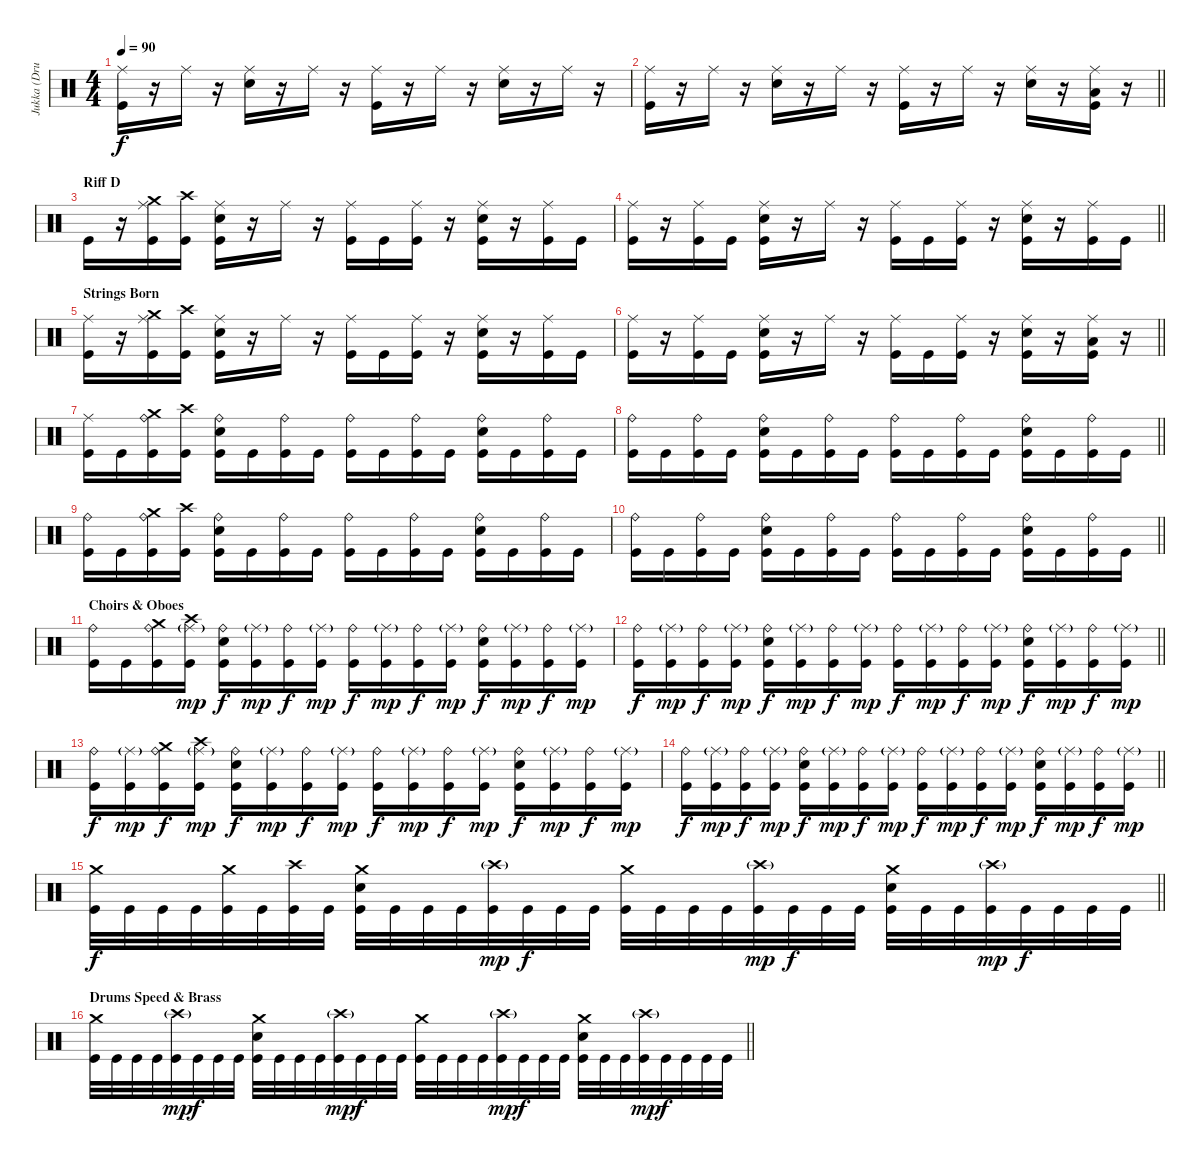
\track ("Jukka (Drums)" "Jukka (Dru") {instrument percussion}
\staff {score}
\articulation defaults
\ts (4 4)
\tempo 90
\clef neutral
\ks c
("Ride (middle)" "Kick (hit)").16{dy f} r.16 "Ride (middle)".16 r.16 ("Ride (middle)" "Snare (hit) 2").16 r.16 "Ride (middle)".16 r.16 ("Ride (middle)" "Kick (hit)").16 r.16 "Ride (middle)".16 r.16 ("Ride (middle)" "Snare (hit) 2").16 r.16 "Ride (middle)".16 r.16 |
\barLineRight lightlight
("Ride (middle)" "Kick (hit)").16 r.16 "Ride (middle)".16 r.16 ("Ride (middle)" "Snare (hit) 2").16 r.16 "Ride (middle)".16 r.16 ("Ride (middle)" "Kick (hit)").16 r.16 "Ride (middle)".16 r.16 ("Ride (middle)" "Snare (hit) 2").16 r.16 ("Ride (middle)" "Low Floor Tom (hit)" "Kick (hit)").16 r.16 |
\section ("" "Riff D")
"Kick (hit)".16 r.16 ("Ride (middle)" "Crash medium (hit)" "Kick (hit)").16 ("Crash high (hit)" "Kick (hit)").16 ("Ride (middle)" "Snare (hit) 2" "Kick (hit)").16 r.16 "Ride (middle)".16 r.16 ("Ride (middle)" "Kick (hit)").16 "Kick (hit)".16 ("Ride (middle)" "Kick (hit)").16 r.16 ("Ride (middle)" "Snare (hit) 2" "Kick (hit)").16 r.16 ("Ride (middle)" "Kick (hit)").16 "Kick (hit)".16 |
\barLineRight lightlight
("Ride (middle)" "Kick (hit)").16 r.16 ("Ride (middle)" "Kick (hit)").16 "Kick (hit)".16 ("Ride (middle)" "Snare (hit) 2" "Kick (hit)").16 r.16 "Ride (middle)".16 r.16 ("Ride (middle)" "Kick (hit)").16 "Kick (hit)".16 ("Ride (middle)" "Kick (hit)").16 r.16 ("Ride (middle)" "Snare (hit) 2" "Kick (hit)").16 r.16 ("Ride (middle)" "Kick (hit)").16 "Kick (hit)".16 |
\section ("" "Strings Born")
("Ride (middle)" "Kick (hit)").16 r.16 ("Ride (middle)" "Crash medium (hit)" "Kick (hit)").16 ("Crash high (hit)" "Kick (hit)").16 ("Ride (middle)" "Snare (hit) 2" "Kick (hit)").16 r.16 "Ride (middle)".16 r.16 ("Ride (middle)" "Kick (hit)").16 "Kick (hit)".16 ("Ride (middle)" "Kick (hit)").16 r.16 ("Ride (middle)" "Snare (hit) 2" "Kick (hit)").16 r.16 ("Ride (middle)" "Kick (hit)").16 "Kick (hit)".16 |
\barLineRight lightlight
("Ride (middle)" "Kick (hit)").16 r.16 ("Ride (middle)" "Kick (hit)").16 "Kick (hit)".16 ("Ride (middle)" "Snare (hit) 2" "Kick (hit)").16 r.16 "Ride (middle)".16 r.16 ("Ride (middle)" "Kick (hit)").16 "Kick (hit)".16 ("Ride (middle)" "Kick (hit)").16 r.16 ("Ride (middle)" "Snare (hit) 2" "Kick (hit)").16 r.16 ("Ride (middle)" "Low Floor Tom (hit)" "Kick (hit)").16 r.16 |
("Ride (middle)" "Kick (hit)").16 "Kick (hit)".16 ("Ride (bell)" "Crash medium (hit)" "Kick (hit)").16 ("Crash high (hit)" "Kick (hit)").16 ("Ride (bell)" "Snare (hit) 2" "Kick (hit)").16 "Kick (hit)".16 ("Ride (bell)" "Kick (hit)").16 "Kick (hit)".16 ("Ride (bell)" "Kick (hit)").16 "Kick (hit)".16 ("Ride (bell)" "Kick (hit)").16 "Kick (hit)".16 ("Ride (bell)" "Snare (hit) 2" "Kick (hit)").16 "Kick (hit)".16 ("Ride (bell)" "Kick (hit)").16 "Kick (hit)".16 |
\barLineRight lightlight
("Ride (bell)" "Kick (hit)").16 "Kick (hit)".16 ("Ride (bell)" "Kick (hit)").16 "Kick (hit)".16 ("Ride (bell)" "Snare (hit) 2" "Kick (hit)").16 "Kick (hit)".16 ("Ride (bell)" "Kick (hit)").16 "Kick (hit)".16 ("Ride (bell)" "Kick (hit)").16 "Kick (hit)".16 ("Ride (bell)" "Kick (hit)").16 "Kick (hit)".16 ("Ride (bell)" "Snare (hit) 2" "Kick (hit)").16 "Kick (hit)".16 ("Ride (bell)" "Kick (hit)").16 "Kick (hit)".16 |
("Ride (bell)" "Kick (hit)").16 "Kick (hit)".16 ("Ride (bell)" "Crash medium (hit)" "Kick (hit)").16 ("Crash high (hit)" "Kick (hit)").16 ("Ride (bell)" "Snare (hit) 2" "Kick (hit)").16 "Kick (hit)".16 ("Ride (bell)" "Kick (hit)").16 "Kick (hit)".16 ("Ride (bell)" "Kick (hit)").16 "Kick (hit)".16 ("Ride (bell)" "Kick (hit)").16 "Kick (hit)".16 ("Ride (bell)" "Snare (hit) 2" "Kick (hit)").16 "Kick (hit)".16 ("Ride (bell)" "Kick (hit)").16 "Kick (hit)".16 |
\barLineRight lightlight
("Ride (bell)" "Kick (hit)").16 "Kick (hit)".16 ("Ride (bell)" "Kick (hit)").16 "Kick (hit)".16 ("Ride (bell)" "Snare (hit) 2" "Kick (hit)").16 "Kick (hit)".16 ("Ride (bell)" "Kick (hit)").16 "Kick (hit)".16 ("Ride (bell)" "Kick (hit)").16 "Kick (hit)".16 ("Ride (bell)" "Kick (hit)").16 "Kick (hit)".16 ("Ride (bell)" "Snare (hit) 2" "Kick (hit)").16 "Kick (hit)".16 ("Ride (bell)" "Kick (hit)").16 "Kick (hit)".16 |
\section ("" "Choirs & Oboes")
("Ride (bell)" "Kick (hit)").16 "Kick (hit)".16 ("Ride (bell)" "Crash medium (hit)" "Kick (hit)").16 ("Ride (middle)"{g} "Crash high (hit)" "Kick (hit)").16{dy mp} ("Ride (bell)" "Snare (hit) 2" "Kick (hit)").16{dy f} ("Ride (middle)"{g} "Kick (hit)").16{dy mp} ("Ride (bell)" "Kick (hit)").16{dy f} ("Ride (middle)"{g} "Kick (hit)").16{dy mp} ("Ride (bell)" "Kick (hit)").16{dy f} ("Ride (middle)"{g} "Kick (hit)").16{dy mp} ("Ride (bell)" "Kick (hit)").16{dy f} ("Ride (middle)"{g} "Kick (hit)").16{dy mp} ("Ride (bell)" "Snare (hit) 2" "Kick (hit)").16{dy f} ("Ride (middle)"{g} "Kick (hit)").16{dy mp} ("Ride (bell)" "Kick (hit)").16{dy f} ("Ride (middle)"{g} "Kick (hit)").16{dy mp} |
\barLineRight lightlight
("Ride (bell)" "Kick (hit)").16{dy f} ("Ride (middle)"{g} "Kick (hit)").16{dy mp} ("Ride (bell)" "Kick (hit)").16{dy f} ("Ride (middle)"{g} "Kick (hit)").16{dy mp} ("Ride (bell)" "Snare (hit) 2" "Kick (hit)").16{dy f} ("Ride (middle)"{g} "Kick (hit)").16{dy mp} ("Ride (bell)" "Kick (hit)").16{dy f} ("Ride (middle)"{g} "Kick (hit)").16{dy mp} ("Ride (bell)" "Kick (hit)").16{dy f} ("Ride (middle)"{g} "Kick (hit)").16{dy mp} ("Ride (bell)" "Kick (hit)").16{dy f} ("Ride (middle)"{g} "Kick (hit)").16{dy mp} ("Ride (bell)" "Snare (hit) 2" "Kick (hit)").16{dy f} ("Ride (middle)"{g} "Kick (hit)").16{dy mp} ("Ride (bell)" "Kick (hit)").16{dy f} ("Ride (middle)"{g} "Kick (hit)").16{dy mp} |
("Ride (bell)" "Kick (hit)").16{dy f} ("Ride (middle)"{g} "Kick (hit)").16{dy mp} ("Ride (bell)" "Crash medium (hit)" "Kick (hit)").16{dy f} ("Ride (middle)"{g} "Crash high (hit)" "Kick (hit)").16{dy mp} ("Ride (bell)" "Snare (hit) 2" "Kick (hit)").16{dy f} ("Ride (middle)"{g} "Kick (hit)").16{dy mp} ("Ride (bell)" "Kick (hit)").16{dy f} ("Ride (middle)"{g} "Kick (hit)").16{dy mp} ("Ride (bell)" "Kick (hit)").16{dy f} ("Ride (middle)"{g} "Kick (hit)").16{dy mp} ("Ride (bell)" "Kick (hit)").16{dy f} ("Ride (middle)"{g} "Kick (hit)").16{dy mp} ("Ride (bell)" "Snare (hit) 2" "Kick (hit)").16{dy f} ("Ride (middle)"{g} "Kick (hit)").16{dy mp} ("Ride (bell)" "Kick (hit)").16{dy f} ("Ride (middle)"{g} "Kick (hit)").16{dy mp} |
\barLineRight lightlight
("Ride (bell)" "Kick (hit)").16{dy f} ("Ride (middle)"{g} "Kick (hit)").16{dy mp} ("Ride (bell)" "Kick (hit)").16{dy f} ("Ride (middle)"{g} "Kick (hit)").16{dy mp} ("Ride (bell)" "Snare (hit) 2" "Kick (hit)").16{dy f} ("Ride (middle)"{g} "Kick (hit)").16{dy mp} ("Ride (bell)" "Kick (hit)").16{dy f} ("Ride (middle)"{g} "Kick (hit)").16{dy mp} ("Ride (bell)" "Kick (hit)").16{dy f} ("Ride (middle)"{g} "Kick (hit)").16{dy mp} ("Ride (bell)" "Kick (hit)").16{dy f} ("Ride (middle)"{g} "Kick (hit)").16{dy mp} ("Ride (bell)" "Snare (hit) 2" "Kick (hit)").16{dy f} ("Ride (middle)"{g} "Kick (hit)").16{dy mp} ("Ride (bell)" "Kick (hit)").16{dy f} ("Ride (middle)"{g} "Kick (hit)").16{dy mp} |
\barLineRight lightlight
("Crash medium (hit)" "Kick (hit)").32{dy f} "Kick (hit)".32 "Kick (hit)".32 "Kick (hit)".32 ("Crash medium (hit)" "Kick (hit)").32 "Kick (hit)".32 ("Crash high (hit)" "Kick (hit)").32 "Kick (hit)".32 ("Crash medium (hit)" "Snare (hit) 2" "Kick (hit)").32 "Kick (hit)".32 "Kick (hit)".32 "Kick (hit)".32 ("Crash high (hit)"{g} "Kick (hit)").32{dy mp} "Kick (hit)".32{dy f} "Kick (hit)".32 "Kick (hit)".32 ("Crash medium (hit)" "Kick (hit)").32 "Kick (hit)".32 "Kick (hit)".32 "Kick (hit)".32 ("Crash high (hit)"{g} "Kick (hit)").32{dy mp} "Kick (hit)".32{dy f} "Kick (hit)".32 "Kick (hit)".32 ("Crash medium (hit)" "Snare (hit) 2" "Kick (hit)").32 "Kick (hit)".32 "Kick (hit)".32 ("Crash high (hit)"{g} "Kick (hit)").32{dy mp} "Kick (hit)".32{dy f} "Kick (hit)".32 "Kick (hit)".32 "Kick (hit)".32 |
\section ("" "Drums Speed & Brass")
\barLineRight lightlight
("Crash medium (hit)" "Kick (hit)").32 "Kick (hit)".32 "Kick (hit)".32 "Kick (hit)".32 ("Crash high (hit)"{g} "Kick (hit)").32{dy mp} "Kick (hit)".32{dy f} "Kick (hit)".32 "Kick (hit)".32 ("Crash medium (hit)" "Snare (hit) 2" "Kick (hit)").32 "Kick (hit)".32 "Kick (hit)".32 "Kick (hit)".32 ("Crash high (hit)"{g} "Kick (hit)").32{dy mp} "Kick (hit)".32{dy f} "Kick (hit)".32 "Kick (hit)".32 ("Crash medium (hit)" "Kick (hit)").32 "Kick (hit)".32 "Kick (hit)".32 "Kick (hit)".32 ("Crash high (hit)"{g} "Kick (hit)").32{dy mp} "Kick (hit)".32{dy f} "Kick (hit)".32 "Kick (hit)".32 ("Crash medium (hit)" "Snare (hit) 2" "Kick (hit)").32 "Kick (hit)".32 "Kick (hit)".32 ("Crash high (hit)"{g} "Kick (hit)").32{dy mp} "Kick (hit)".32{dy f} "Kick (hit)".32 "Kick (hit)".32 "Kick (hit)".32
